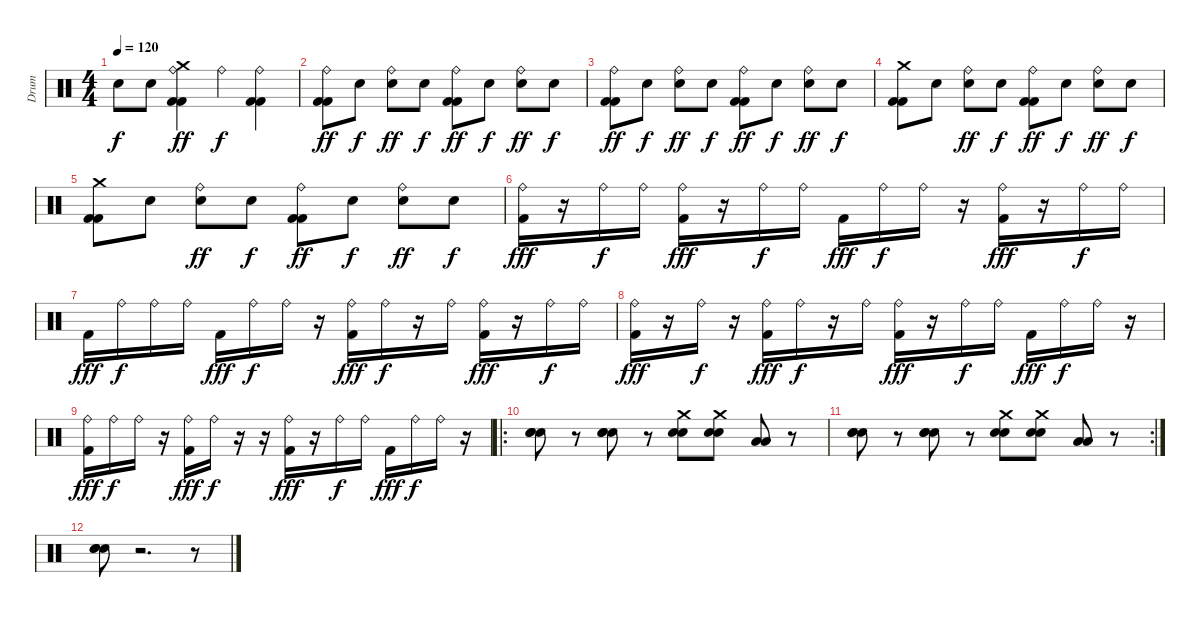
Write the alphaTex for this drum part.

\track ("Drum" "Drum") {instrument percussion}
\staff {score}
\articulation defaults
\ts (4 4)
\tempo 120
\clef neutral
\ks c "Snare (hit) 2".8{dy f} "Snare (hit) 2".8
("Ride (bell)" "Crash medium (hit)" "Kick (hit) 2" "Kick (hit) 2").4{dy ff} "Ride (bell)".4{dy f} ("Ride (bell)" "Kick (hit) 2" "Kick (hit) 2").4 |
("Ride (bell)" "Kick (hit) 2" "Kick (hit) 2").8{dy ff} "Snare (hit) 2".8{dy f} ("Ride (bell)" "Snare (hit) 2").8{dy ff} "Snare (hit) 2".8{dy f} ("Ride (bell)" "Kick (hit) 2" "Kick (hit) 2").8{dy ff} "Snare (hit) 2".8{dy f} ("Ride (bell)" "Snare (hit) 2").8{dy ff} "Snare (hit) 2".8{dy f} |
("Ride (bell)" "Kick (hit) 2" "Kick (hit) 2").8{dy ff} "Snare (hit) 2".8{dy f} ("Ride (bell)" "Snare (hit) 2").8{dy ff} "Snare (hit) 2".8{dy f} ("Ride (bell)" "Kick (hit) 2" "Kick (hit) 2").8{dy ff} "Snare (hit) 2".8{dy f} ("Ride (bell)" "Snare (hit) 2").8{dy ff} "Snare (hit) 2".8{dy f} |
("Crash medium (hit)" "Kick (hit) 2" "Kick (hit) 2").8 "Snare (hit) 2".8 ("Ride (bell)" "Snare (hit) 2").8{dy ff} "Snare (hit) 2".8{dy f} ("Ride (bell)" "Kick (hit) 2" "Kick (hit) 2").8{dy ff} "Snare (hit) 2".8{dy f} ("Ride (bell)" "Snare (hit) 2").8{dy ff} "Snare (hit) 2".8{dy f} |
("Crash medium (hit)" "Kick (hit) 2" "Kick (hit) 2").8 "Snare (hit) 2".8 ("Ride (bell)" "Snare (hit) 2").8{dy ff} "Snare (hit) 2".8{dy f} ("Ride (bell)" "Kick (hit) 2" "Kick (hit) 2").8{dy ff} "Snare (hit) 2".8{dy f} ("Ride (bell)" "Snare (hit) 2").8{dy ff} "Snare (hit) 2".8{dy f} |
("Ride (bell)" "Kick (hit) 2").16{dy fff} r.16 "Ride (bell)".16{dy f} "Ride (bell)".16 ("Ride (bell)" "Kick (hit) 2").16{dy fff} r.16 "Ride (bell)".16{dy f} "Ride (bell)".16 "Kick (hit) 2".16{dy fff} "Ride (bell)".16{dy f} "Ride (bell)".16 r.16 ("Ride (bell)" "Kick (hit) 2").16{dy fff} r.16 "Ride (bell)".16{dy f} "Ride (bell)".16 |
"Kick (hit) 2".16{dy fff} "Ride (bell)".16{dy f} "Ride (bell)".16 "Ride (bell)".16 "Kick (hit) 2".16{dy fff} "Ride (bell)".16{dy f} "Ride (bell)".16 r.16 ("Ride (bell)" "Kick (hit) 2").16{dy fff} "Ride (bell)".16{dy f} r.16 "Ride (bell)".16 ("Ride (bell)" "Kick (hit) 2").16{dy fff} r.16 "Ride (bell)".16{dy f} "Ride (bell)".16 |
("Ride (bell)" "Kick (hit) 2").16{dy fff} r.16 "Ride (bell)".16{dy f} r.16 ("Ride (bell)" "Kick (hit) 2").16{dy fff} "Ride (bell)".16{dy f} r.16 "Ride (bell)".16 ("Ride (bell)" "Kick (hit) 2").16{dy fff} r.16 "Ride (bell)".16{dy f} "Ride (bell)".16 "Kick (hit) 2".16{dy fff} "Ride (bell)".16{dy f} "Ride (bell)".16 r.16 |
("Ride (bell)" "Kick (hit) 2").16{dy fff} "Ride (bell)".16{dy f} "Ride (bell)".16 r.16 ("Ride (bell)" "Kick (hit) 2").16{dy fff} "Ride (bell)".16{dy f} r.16 r.16 ("Ride (bell)" "Kick (hit) 2").16{dy fff} r.16 "Ride (bell)".16{dy f} "Ride (bell)".16 "Kick (hit) 2".16{dy fff} "Ride (bell)".16{dy f} "Ride (bell)".16 r.16 |
\ro
("Snare (hit) 2" "Snare (hit) 2" "Snare (hit) 2").8 r.8 ("Snare (hit) 2" "Snare (hit) 2" "Snare (hit) 2").8 r.8 ("Crash medium (hit)" "Snare (hit) 2" "Snare (hit) 2").8 ("Crash medium (hit)" "Snare (hit) 2" "Snare (hit) 2").8 ("Low Tom (hit)" "Low Tom (hit)").8 r.8 |
\rc 2
("Snare (hit) 2" "Snare (hit) 2" "Snare (hit) 2").8 r.8 ("Snare (hit) 2" "Snare (hit) 2" "Snare (hit) 2").8 r.8 ("Crash medium (hit)" "Snare (hit) 2" "Snare (hit) 2").8 ("Crash medium (hit)" "Snare (hit) 2" "Snare (hit) 2").8 ("Low Tom (hit)" "Low Tom (hit)").8 r.8 |
("Snare (hit) 2" "Snare (hit) 2" "Snare (hit) 2").8 r.2{d} r.8
